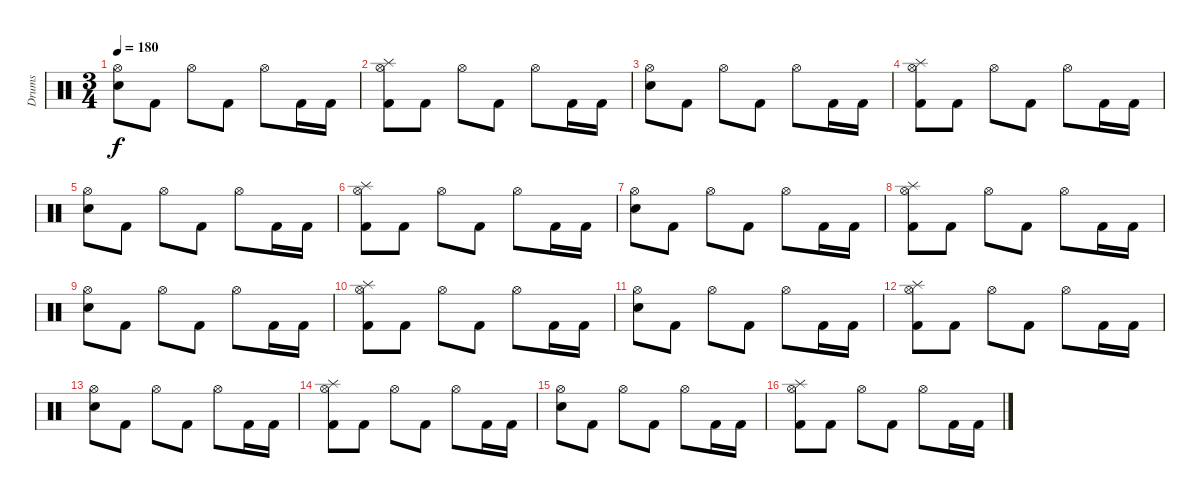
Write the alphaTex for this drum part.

\track ("Drums" "Drums") {instrument percussion}
\staff {score}
\articulation defaults
\ts (3 4)
\tempo 180
\clef neutral
\ks c
("Hi-Hat (open)" "Electric Snare (hit)").8{dy f} "Kick (hit) 2".8 "Hi-Hat (open)".8 "Kick (hit) 2".8 "Hi-Hat (open)".8 "Kick (hit) 2".16 "Kick (hit) 2".16 |
("Splash (hit)" "Hi-Hat (open)" "Kick (hit) 2").8 "Kick (hit) 2".8 "Hi-Hat (open)".8 "Kick (hit) 2".8 "Hi-Hat (open)".8 "Kick (hit) 2".16 "Kick (hit) 2".16 |
("Hi-Hat (open)" "Electric Snare (hit)").8 "Kick (hit) 2".8 "Hi-Hat (open)".8 "Kick (hit) 2".8 "Hi-Hat (open)".8 "Kick (hit) 2".16 "Kick (hit) 2".16 |
("Splash (hit)" "Hi-Hat (open)" "Kick (hit) 2").8 "Kick (hit) 2".8 "Hi-Hat (open)".8 "Kick (hit) 2".8 "Hi-Hat (open)".8 "Kick (hit) 2".16 "Kick (hit) 2".16 |
("Hi-Hat (open)" "Electric Snare (hit)").8 "Kick (hit) 2".8 "Hi-Hat (open)".8 "Kick (hit) 2".8 "Hi-Hat (open)".8 "Kick (hit) 2".16 "Kick (hit) 2".16 |
("Splash (hit)" "Hi-Hat (open)" "Kick (hit) 2").8 "Kick (hit) 2".8 "Hi-Hat (open)".8 "Kick (hit) 2".8 "Hi-Hat (open)".8 "Kick (hit) 2".16 "Kick (hit) 2".16 |
("Hi-Hat (open)" "Electric Snare (hit)").8 "Kick (hit) 2".8 "Hi-Hat (open)".8 "Kick (hit) 2".8 "Hi-Hat (open)".8 "Kick (hit) 2".16 "Kick (hit) 2".16 |
("Splash (hit)" "Hi-Hat (open)" "Kick (hit) 2").8 "Kick (hit) 2".8 "Hi-Hat (open)".8 "Kick (hit) 2".8 "Hi-Hat (open)".8 "Kick (hit) 2".16 "Kick (hit) 2".16 |
("Hi-Hat (open)" "Electric Snare (hit)").8 "Kick (hit) 2".8 "Hi-Hat (open)".8 "Kick (hit) 2".8 "Hi-Hat (open)".8 "Kick (hit) 2".16 "Kick (hit) 2".16 |
("Splash (hit)" "Hi-Hat (open)" "Kick (hit) 2").8 "Kick (hit) 2".8 "Hi-Hat (open)".8 "Kick (hit) 2".8 "Hi-Hat (open)".8 "Kick (hit) 2".16 "Kick (hit) 2".16 |
("Hi-Hat (open)" "Electric Snare (hit)").8 "Kick (hit) 2".8 "Hi-Hat (open)".8 "Kick (hit) 2".8 "Hi-Hat (open)".8 "Kick (hit) 2".16 "Kick (hit) 2".16 |
("Splash (hit)" "Hi-Hat (open)" "Kick (hit) 2").8 "Kick (hit) 2".8 "Hi-Hat (open)".8 "Kick (hit) 2".8 "Hi-Hat (open)".8 "Kick (hit) 2".16 "Kick (hit) 2".16 |
("Hi-Hat (open)" "Electric Snare (hit)").8 "Kick (hit) 2".8 "Hi-Hat (open)".8 "Kick (hit) 2".8 "Hi-Hat (open)".8 "Kick (hit) 2".16 "Kick (hit) 2".16 |
("Splash (hit)" "Hi-Hat (open)" "Kick (hit) 2").8 "Kick (hit) 2".8 "Hi-Hat (open)".8 "Kick (hit) 2".8 "Hi-Hat (open)".8 "Kick (hit) 2".16 "Kick (hit) 2".16 |
("Hi-Hat (open)" "Electric Snare (hit)").8 "Kick (hit) 2".8 "Hi-Hat (open)".8 "Kick (hit) 2".8 "Hi-Hat (open)".8 "Kick (hit) 2".16 "Kick (hit) 2".16 |
("Splash (hit)" "Hi-Hat (open)" "Kick (hit) 2").8 "Kick (hit) 2".8 "Hi-Hat (open)".8 "Kick (hit) 2".8 "Hi-Hat (open)".8 "Kick (hit) 2".16 "Kick (hit) 2".16
